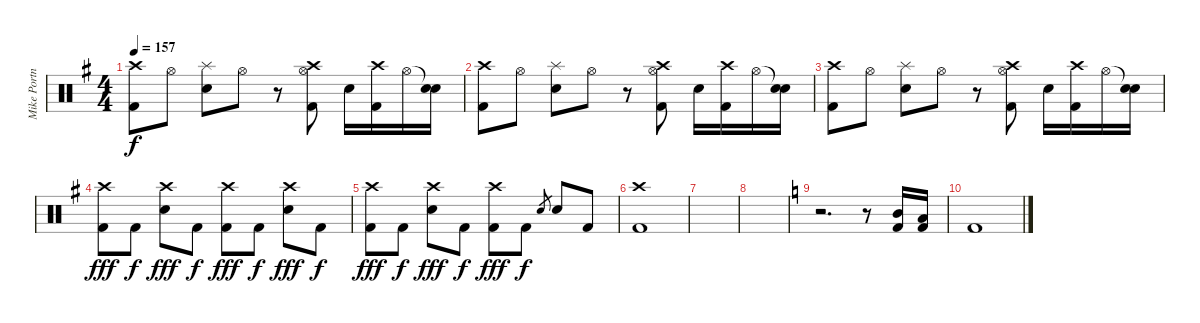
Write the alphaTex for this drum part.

\track ("Mike Portnoy" "Mike Portn") {instrument percussion}
\staff {score}
\articulation defaults
\ts (4 4)
\tempo 157
\clef neutral
\ks g
("Kick (hit) 2" "Crash high (hit)").8{dy f} "Hi-Hat (open)".8 ("Snare (hit) 2" "Splash (hit)").8 "Hi-Hat (open)".8 r.8 ("Kick (hit) 2" "Hi-Hat (open)" "Crash high (hit)").8 "Snare (hit) 2".16 ("Kick (hit) 2" "Crash high (hit)").16 "Hi-Hat (open)".16 ("Snare (hit)"{t} "Snare (hit) 2").16 |
("Kick (hit) 2" "Crash high (hit)").8 "Hi-Hat (open)".8 ("Snare (hit) 2" "Splash (hit)").8 "Hi-Hat (open)".8 r.8 ("Kick (hit) 2" "Hi-Hat (open)" "Crash high (hit)").8 "Snare (hit) 2".16 ("Kick (hit) 2" "Crash high (hit)").16 "Hi-Hat (open)".16 ("Snare (hit)"{t} "Snare (hit) 2").16 |
("Kick (hit) 2" "Crash high (hit)").8 "Hi-Hat (open)".8 ("Snare (hit) 2" "Splash (hit)").8 "Hi-Hat (open)".8 r.8 ("Kick (hit) 2" "Hi-Hat (open)" "Crash high (hit)").8 "Snare (hit) 2".16 ("Kick (hit) 2" "Crash high (hit)").16 "Hi-Hat (open)".16 ("Snare (hit)"{t} "Snare (hit) 2").16 |
("Kick (hit) 2" "Crash high (hit)").8{dy fff} "Kick (hit) 2".8{dy f} ("Snare (hit) 2" "Crash high (hit)").8{dy fff} "Kick (hit) 2".8{dy f} ("Kick (hit) 2" "Crash high (hit)").8{dy fff} "Kick (hit) 2".8{dy f} ("Snare (hit) 2" "Crash high (hit)").8{dy fff} "Kick (hit) 2".8{dy f} |
("Kick (hit) 2" "Crash high (hit)").8{dy fff} "Kick (hit) 2".8{dy f} ("Snare (hit) 2" "Crash high (hit)").8{dy fff} "Kick (hit) 2".8{dy f} ("Kick (hit) 2" "Crash high (hit)").8{dy fff} "Kick (hit) 2".8{dy f} "Snare (hit) 2".8{gr} "Snare (hit) 2".8 "Kick (hit) 2".8 |
("Kick (hit) 2" "Crash high (hit)").1 |
|
|
\ks c
r.2{d} r.8 ("Mid Tom (hit)" "Kick (hit) 2").16 ("Low Tom (hit)" "Kick (hit) 2").16 |
"Kick (hit) 2".1
